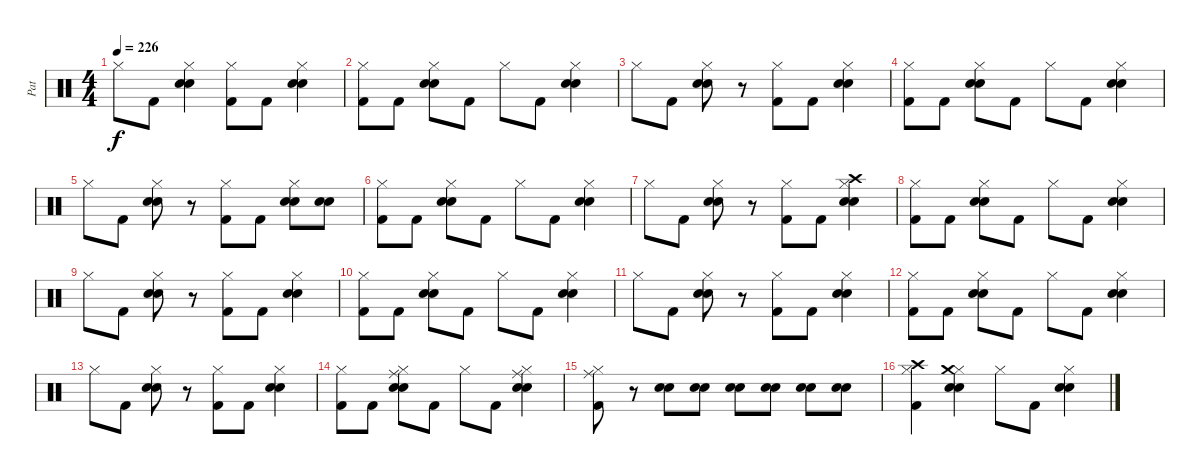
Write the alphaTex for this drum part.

\track ("Pat" "Pat") {instrument percussion}
\staff {score}
\articulation defaults
\ts (4 4)
\tempo 226
\clef neutral
\ks c "Hi-Hat (closed)".8{dy f} "Kick (hit) 2".8
("Hi-Hat (closed)" "Snare (hit) 2" "Electric Snare (hit)").4 ("Hi-Hat (closed)" "Kick (hit) 2").8 "Kick (hit) 2".8 ("Hi-Hat (closed)" "Snare (hit) 2" "Electric Snare (hit)").4 |
("Hi-Hat (closed)" "Kick (hit) 2").8 "Kick (hit) 2".8 ("Hi-Hat (closed)" "Snare (hit) 2" "Electric Snare (hit)").8 "Kick (hit) 2".8 "Hi-Hat (closed)".8 "Kick (hit) 2".8 ("Hi-Hat (closed)" "Snare (hit) 2" "Electric Snare (hit)").4 |
"Hi-Hat (closed)".8 "Kick (hit) 2".8 ("Hi-Hat (closed)" "Snare (hit) 2" "Electric Snare (hit)").8 r.8 ("Hi-Hat (closed)" "Kick (hit) 2").8 "Kick (hit) 2".8 ("Hi-Hat (closed)" "Snare (hit) 2" "Electric Snare (hit)").4 |
("Hi-Hat (closed)" "Kick (hit) 2").8 "Kick (hit) 2".8 ("Hi-Hat (closed)" "Snare (hit) 2" "Electric Snare (hit)").8 "Kick (hit) 2".8 "Hi-Hat (closed)".8 "Kick (hit) 2".8 ("Hi-Hat (closed)" "Snare (hit) 2" "Electric Snare (hit)").4 |
"Hi-Hat (closed)".8 "Kick (hit) 2".8 ("Hi-Hat (closed)" "Snare (hit) 2" "Electric Snare (hit)").8 r.8 ("Hi-Hat (closed)" "Kick (hit) 2").8 "Kick (hit) 2".8 ("Hi-Hat (closed)" "Snare (hit) 2" "Electric Snare (hit)").8 ("Snare (hit) 2" "Electric Snare (hit)").8 |
("Hi-Hat (closed)" "Kick (hit) 2").8 "Kick (hit) 2".8 ("Hi-Hat (closed)" "Snare (hit) 2" "Electric Snare (hit)").8 "Kick (hit) 2".8 "Hi-Hat (closed)".8 "Kick (hit) 2".8 ("Hi-Hat (closed)" "Snare (hit) 2" "Electric Snare (hit)").4 |
"Hi-Hat (closed)".8 "Kick (hit) 2".8 ("Hi-Hat (closed)" "Snare (hit) 2" "Electric Snare (hit)").8 r.8 ("Hi-Hat (closed)" "Kick (hit) 2").8 "Kick (hit) 2".8 ("Hi-Hat (closed)" "Crash high (hit)" "Snare (hit) 2" "Electric Snare (hit)").4 |
("Hi-Hat (closed)" "Kick (hit) 2").8 "Kick (hit) 2".8 ("Hi-Hat (closed)" "Snare (hit) 2" "Electric Snare (hit)").8 "Kick (hit) 2".8 "Hi-Hat (closed)".8 "Kick (hit) 2".8 ("Hi-Hat (closed)" "Snare (hit) 2" "Electric Snare (hit)").4 |
"Hi-Hat (closed)".8 "Kick (hit) 2".8 ("Hi-Hat (closed)" "Snare (hit) 2" "Electric Snare (hit)").8 r.8 ("Hi-Hat (closed)" "Kick (hit) 2").8 "Kick (hit) 2".8 ("Hi-Hat (closed)" "Snare (hit) 2" "Electric Snare (hit)").4 |
("Hi-Hat (closed)" "Kick (hit) 2").8 "Kick (hit) 2".8 ("Hi-Hat (closed)" "Snare (hit) 2" "Electric Snare (hit)").8 "Kick (hit) 2".8 "Hi-Hat (closed)".8 "Kick (hit) 2".8 ("Hi-Hat (closed)" "Snare (hit) 2" "Electric Snare (hit)").4 |
"Hi-Hat (closed)".8 "Kick (hit) 2".8 ("Hi-Hat (closed)" "Snare (hit) 2" "Electric Snare (hit)").8 r.8 ("Hi-Hat (closed)" "Kick (hit) 2").8 "Kick (hit) 2".8 ("Hi-Hat (closed)" "Snare (hit) 2" "Electric Snare (hit)").4 |
("Hi-Hat (closed)" "Kick (hit) 2").8 "Kick (hit) 2".8 ("Hi-Hat (closed)" "Snare (hit) 2" "Electric Snare (hit)").8 "Kick (hit) 2".8 "Hi-Hat (closed)".8 "Kick (hit) 2".8 ("Hi-Hat (closed)" "Snare (hit) 2" "Electric Snare (hit)").4 |
"Hi-Hat (closed)".8 "Kick (hit) 2".8 ("Hi-Hat (closed)" "Snare (hit) 2" "Electric Snare (hit)").8 r.8 ("Hi-Hat (closed)" "Kick (hit) 2").8 "Kick (hit) 2".8 ("Hi-Hat (closed)" "Snare (hit) 2" "Electric Snare (hit)").4 |
("Hi-Hat (closed)" "Kick (hit) 2").8 "Kick (hit) 2".8 ("Hi-Hat (closed)" "Ride (middle)" "Snare (hit) 2" "Electric Snare (hit)").8 "Kick (hit) 2".8 "Hi-Hat (closed)".8 "Kick (hit) 2".8 ("Hi-Hat (closed)" "Ride (middle)" "Snare (hit) 2" "Electric Snare (hit)").4 |
("Hi-Hat (closed)" "Ride (middle)" "Kick (hit) 2").8 r.8 ("Snare (hit) 2" "Electric Snare (hit)").8 ("Snare (hit) 2" "Electric Snare (hit)").8 ("Snare (hit) 2" "Electric Snare (hit)").8 ("Snare (hit) 2" "Electric Snare (hit)").8 ("Snare (hit) 2" "Electric Snare (hit)").8 ("Snare (hit) 2" "Electric Snare (hit)").8 |
("Hi-Hat (closed)" "Crash high (hit)" "Kick (hit) 2").4 ("Hi-Hat (closed)" "Crash medium (hit)" "Snare (hit) 2" "Electric Snare (hit)").4 "Hi-Hat (closed)".8 "Kick (hit) 2".8 ("Hi-Hat (closed)" "Snare (hit) 2" "Electric Snare (hit)").4
